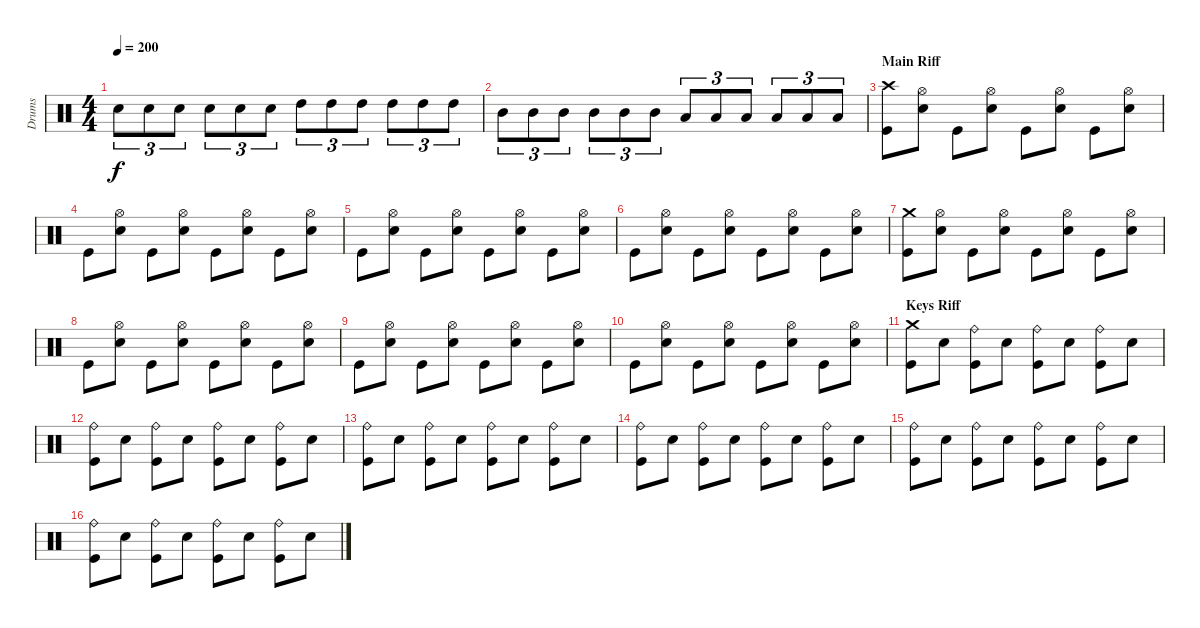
\track ("Drums" "Drums") {instrument percussion}
\staff {score}
\articulation defaults
\ts (4 4)
\tempo 200
\clef neutral
\ks c "Electric Snare (hit)".8{tu (3 2) dy f} "Electric Snare (hit)".8{tu (3 2)} "Electric Snare (hit)".8{tu (3 2)} "Electric Snare (hit)".8{tu (3 2)} "Electric Snare (hit)".8{tu (3 2)} "Electric Snare (hit)".8{tu (3 2)} "High Tom (hit)".8{tu (3 2)} "High Tom (hit)".8{tu (3 2)} "High Tom (hit)".8{tu (3 2)} "High Tom (hit)".8{tu (3 2)} "High Tom (hit)".8{tu (3 2)} "High Tom (hit)".8{tu (3 2)}
|
"Mid Tom (hit)".8{tu (3 2)} "Mid Tom (hit)".8{tu (3 2)} "Mid Tom (hit)".8{tu (3 2)} "Mid Tom (hit)".8{tu (3 2)} "Mid Tom (hit)".8{tu (3 2)} "Mid Tom (hit)".8{tu (3 2)} "Low Tom (hit)".8{tu (3 2)} "Low Tom (hit)".8{tu (3 2)} "Low Tom (hit)".8{tu (3 2)} "Low Tom (hit)".8{tu (3 2)} "Low Tom (hit)".8{tu (3 2)} "Low Tom (hit)".8{tu (3 2)} |
\section ("" "Main Riff")
("Crash high (hit)" "Kick (hit)").8 ("Hi-Hat (open)" "Electric Snare (hit)").8 "Kick (hit)".8 ("Hi-Hat (open)" "Electric Snare (hit)").8 "Kick (hit)".8 ("Hi-Hat (open)" "Electric Snare (hit)").8 "Kick (hit)".8 ("Hi-Hat (open)" "Electric Snare (hit)").8 |
"Kick (hit)".8 ("Hi-Hat (open)" "Electric Snare (hit)").8 "Kick (hit)".8 ("Hi-Hat (open)" "Electric Snare (hit)").8 "Kick (hit)".8 ("Hi-Hat (open)" "Electric Snare (hit)").8 "Kick (hit)".8 ("Hi-Hat (open)" "Electric Snare (hit)").8 |
"Kick (hit)".8 ("Hi-Hat (open)" "Electric Snare (hit)").8 "Kick (hit)".8 ("Hi-Hat (open)" "Electric Snare (hit)").8 "Kick (hit)".8 ("Hi-Hat (open)" "Electric Snare (hit)").8 "Kick (hit)".8 ("Hi-Hat (open)" "Electric Snare (hit)").8 |
"Kick (hit)".8 ("Hi-Hat (open)" "Electric Snare (hit)").8 "Kick (hit)".8 ("Hi-Hat (open)" "Electric Snare (hit)").8 "Kick (hit)".8 ("Hi-Hat (open)" "Electric Snare (hit)").8 "Kick (hit)".8 ("Hi-Hat (open)" "Electric Snare (hit)").8 |
("Crash medium (hit)" "Kick (hit)").8 ("Hi-Hat (open)" "Electric Snare (hit)").8 "Kick (hit)".8 ("Hi-Hat (open)" "Electric Snare (hit)").8 "Kick (hit)".8 ("Hi-Hat (open)" "Electric Snare (hit)").8 "Kick (hit)".8 ("Hi-Hat (open)" "Electric Snare (hit)").8 |
"Kick (hit)".8 ("Hi-Hat (open)" "Electric Snare (hit)").8 "Kick (hit)".8 ("Hi-Hat (open)" "Electric Snare (hit)").8 "Kick (hit)".8 ("Hi-Hat (open)" "Electric Snare (hit)").8 "Kick (hit)".8 ("Hi-Hat (open)" "Electric Snare (hit)").8 |
"Kick (hit)".8 ("Hi-Hat (open)" "Electric Snare (hit)").8 "Kick (hit)".8 ("Hi-Hat (open)" "Electric Snare (hit)").8 "Kick (hit)".8 ("Hi-Hat (open)" "Electric Snare (hit)").8 "Kick (hit)".8 ("Hi-Hat (open)" "Electric Snare (hit)").8 |
"Kick (hit)".8 ("Hi-Hat (open)" "Electric Snare (hit)").8 "Kick (hit)".8 ("Hi-Hat (open)" "Electric Snare (hit)").8 "Kick (hit)".8 ("Hi-Hat (open)" "Electric Snare (hit)").8 "Kick (hit)".8 ("Hi-Hat (open)" "Electric Snare (hit)").8 |
\section ("" "Keys Riff")
("Crash medium (hit)" "Kick (hit)").8 "Electric Snare (hit)".8 ("Ride (bell)" "Kick (hit)").8 "Electric Snare (hit)".8 ("Ride (bell)" "Kick (hit)").8 "Electric Snare (hit)".8 ("Ride (bell)" "Kick (hit)").8 "Electric Snare (hit)".8 |
("Ride (bell)" "Kick (hit)").8 "Electric Snare (hit)".8 ("Ride (bell)" "Kick (hit)").8 "Electric Snare (hit)".8 ("Ride (bell)" "Kick (hit)").8 "Electric Snare (hit)".8 ("Ride (bell)" "Kick (hit)").8 "Electric Snare (hit)".8 |
("Ride (bell)" "Kick (hit)").8 "Electric Snare (hit)".8 ("Ride (bell)" "Kick (hit)").8 "Electric Snare (hit)".8 ("Ride (bell)" "Kick (hit)").8 "Electric Snare (hit)".8 ("Ride (bell)" "Kick (hit)").8 "Electric Snare (hit)".8 |
("Ride (bell)" "Kick (hit)").8 "Electric Snare (hit)".8 ("Ride (bell)" "Kick (hit)").8 "Electric Snare (hit)".8 ("Ride (bell)" "Kick (hit)").8 "Electric Snare (hit)".8 ("Ride (bell)" "Kick (hit)").8 "Electric Snare (hit)".8 |
("Ride (bell)" "Kick (hit)").8 "Electric Snare (hit)".8 ("Ride (bell)" "Kick (hit)").8 "Electric Snare (hit)".8 ("Ride (bell)" "Kick (hit)").8 "Electric Snare (hit)".8 ("Ride (bell)" "Kick (hit)").8 "Electric Snare (hit)".8 |
("Ride (bell)" "Kick (hit)").8 "Electric Snare (hit)".8 ("Ride (bell)" "Kick (hit)").8 "Electric Snare (hit)".8 ("Ride (bell)" "Kick (hit)").8 "Electric Snare (hit)".8 ("Ride (bell)" "Kick (hit)").8 "Electric Snare (hit)".8
